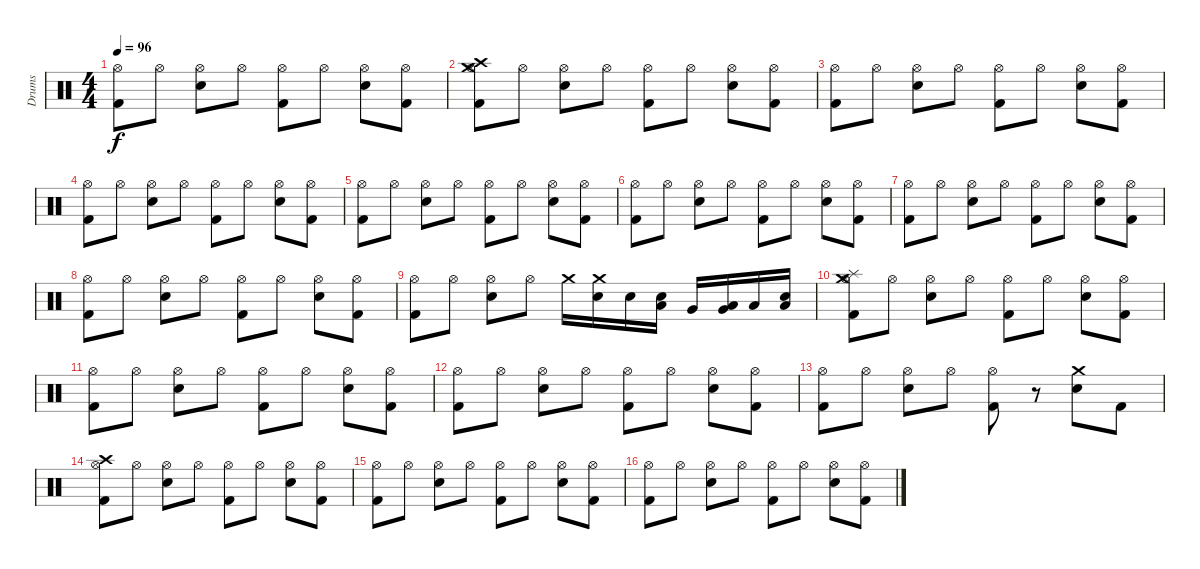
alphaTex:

\track ("Drums" "Drums") {instrument percussion}
\staff {score}
\articulation defaults
\ts (4 4)
\tempo 96
\clef neutral
\ks c
("Hi-Hat (open)" "Kick (hit) 2").8{dy f} "Hi-Hat (open)".8 ("Hi-Hat (open)" "Snare (hit) 2").8 "Hi-Hat (open)".8 ("Hi-Hat (open)" "Kick (hit) 2").8 "Hi-Hat (open)".8 ("Snare (hit) 2" "Hi-Hat (open)").8 ("Kick (hit) 2" "Hi-Hat (open)").8 |
("Crash medium (hit)" "Crash high (hit)" "Hi-Hat (open)" "Kick (hit) 2").8 "Hi-Hat (open)".8 ("Hi-Hat (open)" "Snare (hit) 2").8 "Hi-Hat (open)".8 ("Hi-Hat (open)" "Kick (hit) 2").8 "Hi-Hat (open)".8 ("Snare (hit) 2" "Hi-Hat (open)").8 ("Kick (hit) 2" "Hi-Hat (open)").8 |
("Hi-Hat (open)" "Kick (hit) 2").8 "Hi-Hat (open)".8 ("Hi-Hat (open)" "Snare (hit) 2").8 "Hi-Hat (open)".8 ("Hi-Hat (open)" "Kick (hit) 2").8 "Hi-Hat (open)".8 ("Snare (hit) 2" "Hi-Hat (open)").8 ("Kick (hit) 2" "Hi-Hat (open)").8 |
("Hi-Hat (open)" "Kick (hit) 2").8 "Hi-Hat (open)".8 ("Hi-Hat (open)" "Snare (hit) 2").8 "Hi-Hat (open)".8 ("Hi-Hat (open)" "Kick (hit) 2").8 "Hi-Hat (open)".8 ("Snare (hit) 2" "Hi-Hat (open)").8 ("Kick (hit) 2" "Hi-Hat (open)").8 |
("Hi-Hat (open)" "Kick (hit) 2").8 "Hi-Hat (open)".8 ("Hi-Hat (open)" "Snare (hit) 2").8 "Hi-Hat (open)".8 ("Hi-Hat (open)" "Kick (hit) 2").8 "Hi-Hat (open)".8 ("Snare (hit) 2" "Hi-Hat (open)").8 ("Kick (hit) 2" "Hi-Hat (open)").8 |
("Hi-Hat (open)" "Kick (hit) 2").8 "Hi-Hat (open)".8 ("Hi-Hat (open)" "Snare (hit) 2").8 "Hi-Hat (open)".8 ("Hi-Hat (open)" "Kick (hit) 2").8 "Hi-Hat (open)".8 ("Snare (hit) 2" "Hi-Hat (open)").8 ("Kick (hit) 2" "Hi-Hat (open)").8 |
("Hi-Hat (open)" "Kick (hit) 2").8 "Hi-Hat (open)".8 ("Hi-Hat (open)" "Snare (hit) 2").8 "Hi-Hat (open)".8 ("Hi-Hat (open)" "Kick (hit) 2").8 "Hi-Hat (open)".8 ("Snare (hit) 2" "Hi-Hat (open)").8 ("Kick (hit) 2" "Hi-Hat (open)").8 |
("Hi-Hat (open)" "Kick (hit) 2").8 "Hi-Hat (open)".8 ("Hi-Hat (open)" "Snare (hit) 2").8 "Hi-Hat (open)".8 ("Hi-Hat (open)" "Kick (hit) 2").8 "Hi-Hat (open)".8 ("Snare (hit) 2" "Hi-Hat (open)").8 ("Kick (hit) 2" "Hi-Hat (open)").8 |
("Hi-Hat (open)" "Kick (hit) 2").8 "Hi-Hat (open)".8 ("Hi-Hat (open)" "Snare (hit) 2").8 "Hi-Hat (open)".8 "Crash medium (hit)".16 ("Snare (hit)" "Crash medium (hit)").16 "Snare (hit) 2".16 ("Snare (hit) 2" "Low Tom (hit)").16 "Very Low Tom (hit)".16 ("Very Low Tom (hit)" "Low Floor Tom (hit)").16 "Low Floor Tom (hit)".16 ("Low Tom (hit)" "Snare (hit) 2").16 |
("Crash medium (hit)" "Splash (hit)" "Hi-Hat (open)" "Kick (hit) 2").8 "Hi-Hat (open)".8 ("Hi-Hat (open)" "Snare (hit) 2").8 "Hi-Hat (open)".8 ("Hi-Hat (open)" "Kick (hit) 2").8 "Hi-Hat (open)".8 ("Snare (hit) 2" "Hi-Hat (open)").8 ("Kick (hit) 2" "Hi-Hat (open)").8 |
("Hi-Hat (open)" "Kick (hit) 2").8 "Hi-Hat (open)".8 ("Hi-Hat (open)" "Snare (hit) 2").8 "Hi-Hat (open)".8 ("Hi-Hat (open)" "Kick (hit) 2").8 "Hi-Hat (open)".8 ("Snare (hit) 2" "Hi-Hat (open)").8 ("Kick (hit) 2" "Hi-Hat (open)").8 |
("Hi-Hat (open)" "Kick (hit) 2").8 "Hi-Hat (open)".8 ("Hi-Hat (open)" "Snare (hit) 2").8 "Hi-Hat (open)".8 ("Hi-Hat (open)" "Kick (hit) 2").8 "Hi-Hat (open)".8 ("Snare (hit) 2" "Hi-Hat (open)").8 ("Kick (hit) 2" "Hi-Hat (open)").8 |
("Hi-Hat (open)" "Kick (hit) 2").8 "Hi-Hat (open)".8 ("Hi-Hat (open)" "Snare (hit) 2").8 "Hi-Hat (open)".8 ("Hi-Hat (open)" "Kick (hit) 2").8 r.8 ("Crash medium (hit)" "Snare (hit) 2").8 "Kick (hit) 2".8 |
("Crash high (hit)" "Hi-Hat (open)" "Kick (hit) 2").8 "Hi-Hat (open)".8 ("Hi-Hat (open)" "Snare (hit) 2").8 "Hi-Hat (open)".8 ("Hi-Hat (open)" "Kick (hit) 2").8 "Hi-Hat (open)".8 ("Snare (hit) 2" "Hi-Hat (open)").8 ("Kick (hit) 2" "Hi-Hat (open)").8 |
("Hi-Hat (open)" "Kick (hit) 2").8 "Hi-Hat (open)".8 ("Hi-Hat (open)" "Snare (hit) 2").8 "Hi-Hat (open)".8 ("Hi-Hat (open)" "Kick (hit) 2").8 "Hi-Hat (open)".8 ("Snare (hit) 2" "Hi-Hat (open)").8 ("Kick (hit) 2" "Hi-Hat (open)").8 |
("Hi-Hat (open)" "Kick (hit) 2").8 "Hi-Hat (open)".8 ("Hi-Hat (open)" "Snare (hit) 2").8 "Hi-Hat (open)".8 ("Hi-Hat (open)" "Kick (hit) 2").8 "Hi-Hat (open)".8 ("Snare (hit) 2" "Hi-Hat (open)").8 ("Kick (hit) 2" "Hi-Hat (open)").8
